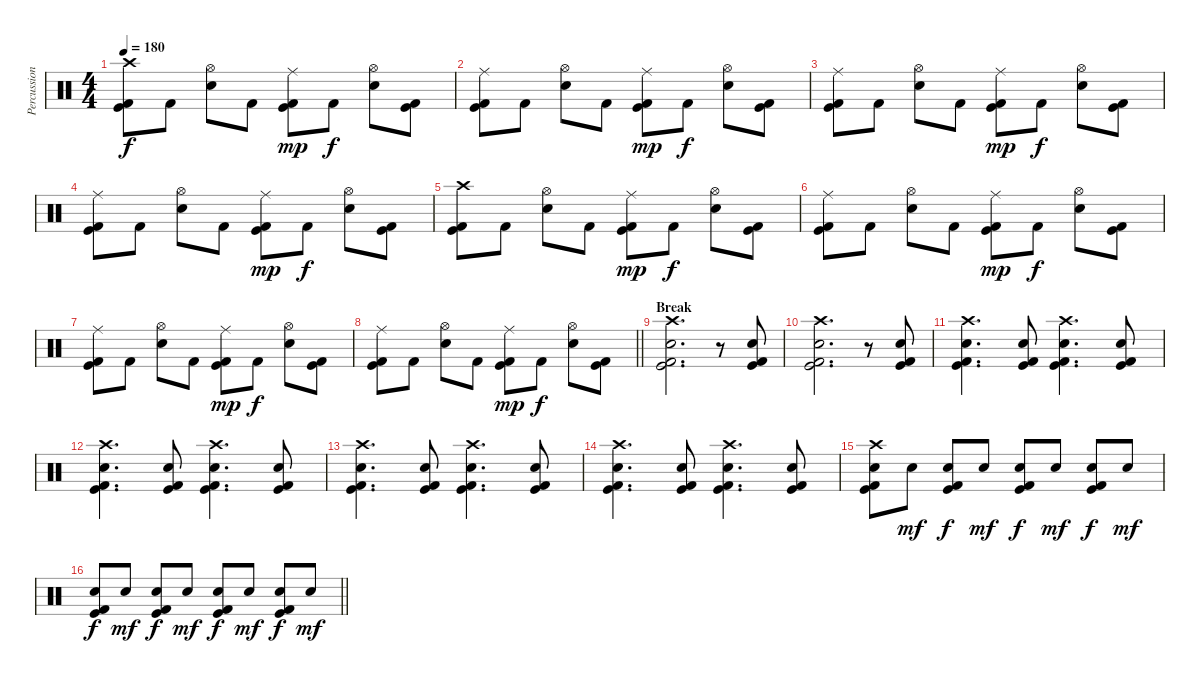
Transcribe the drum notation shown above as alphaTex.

\track ("Percussion" "Percussion") {instrument percussion}
\staff {score}
\articulation defaults
\ts (4 4)
\tempo 180
\clef neutral
\ks c
("Crash high (hit)" "Kick (hit)" "Kick (hit) 2").8{dy f} "Kick (hit) 2".8 ("Hi-Hat (open)" "Snare (hit) 2").8 "Kick (hit) 2".8 ("Ride (middle)" "Kick (hit)" "Kick (hit) 2").8{dy mp} "Kick (hit) 2".8{dy f} ("Hi-Hat (open)" "Snare (hit) 2").8 ("Kick (hit)" "Kick (hit) 2").8 |
("Ride (middle)" "Kick (hit)" "Kick (hit) 2").8 "Kick (hit) 2".8 ("Hi-Hat (open)" "Snare (hit) 2").8 "Kick (hit) 2".8 ("Ride (middle)" "Kick (hit)" "Kick (hit) 2").8{dy mp} "Kick (hit) 2".8{dy f} ("Hi-Hat (open)" "Snare (hit) 2").8 ("Kick (hit)" "Kick (hit) 2").8 |
("Ride (middle)" "Kick (hit)" "Kick (hit) 2").8 "Kick (hit) 2".8 ("Hi-Hat (open)" "Snare (hit) 2").8 "Kick (hit) 2".8 ("Ride (middle)" "Kick (hit)" "Kick (hit) 2").8{dy mp} "Kick (hit) 2".8{dy f} ("Hi-Hat (open)" "Snare (hit) 2").8 ("Kick (hit)" "Kick (hit) 2").8 |
("Ride (middle)" "Kick (hit)" "Kick (hit) 2").8 "Kick (hit) 2".8 ("Hi-Hat (open)" "Snare (hit) 2").8 "Kick (hit) 2".8 ("Ride (middle)" "Kick (hit)" "Kick (hit) 2").8{dy mp} "Kick (hit) 2".8{dy f} ("Hi-Hat (open)" "Snare (hit) 2").8 ("Kick (hit)" "Kick (hit) 2").8 |
("Crash high (hit)" "Kick (hit)" "Kick (hit) 2").8 "Kick (hit) 2".8 ("Hi-Hat (open)" "Snare (hit) 2").8 "Kick (hit) 2".8 ("Ride (middle)" "Kick (hit)" "Kick (hit) 2").8{dy mp} "Kick (hit) 2".8{dy f} ("Hi-Hat (open)" "Snare (hit) 2").8 ("Kick (hit)" "Kick (hit) 2").8 |
("Ride (middle)" "Kick (hit)" "Kick (hit) 2").8 "Kick (hit) 2".8 ("Hi-Hat (open)" "Snare (hit) 2").8 "Kick (hit) 2".8 ("Ride (middle)" "Kick (hit)" "Kick (hit) 2").8{dy mp} "Kick (hit) 2".8{dy f} ("Hi-Hat (open)" "Snare (hit) 2").8 ("Kick (hit)" "Kick (hit) 2").8 |
("Ride (middle)" "Kick (hit)" "Kick (hit) 2").8 "Kick (hit) 2".8 ("Hi-Hat (open)" "Snare (hit) 2").8 "Kick (hit) 2".8 ("Ride (middle)" "Kick (hit)" "Kick (hit) 2").8{dy mp} "Kick (hit) 2".8{dy f} ("Hi-Hat (open)" "Snare (hit) 2").8 ("Kick (hit)" "Kick (hit) 2").8 |
\barLineRight lightlight
("Ride (middle)" "Kick (hit)" "Kick (hit) 2").8 "Kick (hit) 2".8 ("Hi-Hat (open)" "Snare (hit) 2").8 "Kick (hit) 2".8 ("Ride (middle)" "Kick (hit)" "Kick (hit) 2").8{dy mp} "Kick (hit) 2".8{dy f} ("Hi-Hat (open)" "Snare (hit) 2").8 ("Kick (hit)" "Kick (hit) 2").8 |
\section ("" "Break")
("Crash high (hit)" "Snare (hit) 2" "Kick (hit)" "Kick (hit) 2").2{d} r.8 ("Snare (hit) 2" "Kick (hit)" "Kick (hit) 2").8 |
("Crash high (hit)" "Snare (hit) 2" "Kick (hit)" "Kick (hit) 2").2{d} r.8 ("Snare (hit) 2" "Kick (hit)" "Kick (hit) 2").8 |
("Crash high (hit)" "Snare (hit) 2" "Kick (hit)" "Kick (hit) 2").4{d} ("Snare (hit) 2" "Kick (hit)" "Kick (hit) 2").8 ("Crash high (hit)" "Snare (hit) 2" "Kick (hit)" "Kick (hit) 2").4{d} ("Snare (hit) 2" "Kick (hit)" "Kick (hit) 2").8 |
("Crash high (hit)" "Snare (hit) 2" "Kick (hit)" "Kick (hit) 2").4{d} ("Snare (hit) 2" "Kick (hit)" "Kick (hit) 2").8 ("Crash high (hit)" "Snare (hit) 2" "Kick (hit)" "Kick (hit) 2").4{d} ("Snare (hit) 2" "Kick (hit)" "Kick (hit) 2").8 |
("Crash high (hit)" "Snare (hit) 2" "Kick (hit)" "Kick (hit) 2").4{d} ("Snare (hit) 2" "Kick (hit)" "Kick (hit) 2").8 ("Crash high (hit)" "Snare (hit) 2" "Kick (hit)" "Kick (hit) 2").4{d} ("Snare (hit) 2" "Kick (hit)" "Kick (hit) 2").8 |
("Crash high (hit)" "Snare (hit) 2" "Kick (hit)" "Kick (hit) 2").4{d} ("Snare (hit) 2" "Kick (hit)" "Kick (hit) 2").8 ("Crash high (hit)" "Snare (hit) 2" "Kick (hit)" "Kick (hit) 2").4{d} ("Snare (hit) 2" "Kick (hit)" "Kick (hit) 2").8 |
("Crash high (hit)" "Snare (hit) 2" "Kick (hit)" "Kick (hit) 2").8 "Snare (hit) 2".8{dy mf} ("Snare (hit) 2" "Kick (hit)" "Kick (hit) 2").8{dy f} "Snare (hit) 2".8{dy mf} ("Snare (hit) 2" "Kick (hit)" "Kick (hit) 2").8{dy f} "Snare (hit) 2".8{dy mf} ("Snare (hit) 2" "Kick (hit)" "Kick (hit) 2").8{dy f} "Snare (hit) 2".8{dy mf} |
\barLineRight lightlight
("Snare (hit) 2" "Kick (hit)" "Kick (hit) 2").8{dy f} "Snare (hit) 2".8{dy mf} ("Snare (hit) 2" "Kick (hit)" "Kick (hit) 2").8{dy f} "Snare (hit) 2".8{dy mf} ("Snare (hit) 2" "Kick (hit)" "Kick (hit) 2").8{dy f} "Snare (hit) 2".8{dy mf} ("Snare (hit) 2" "Kick (hit)" "Kick (hit) 2").8{dy f} "Snare (hit) 2".8{dy mf}
